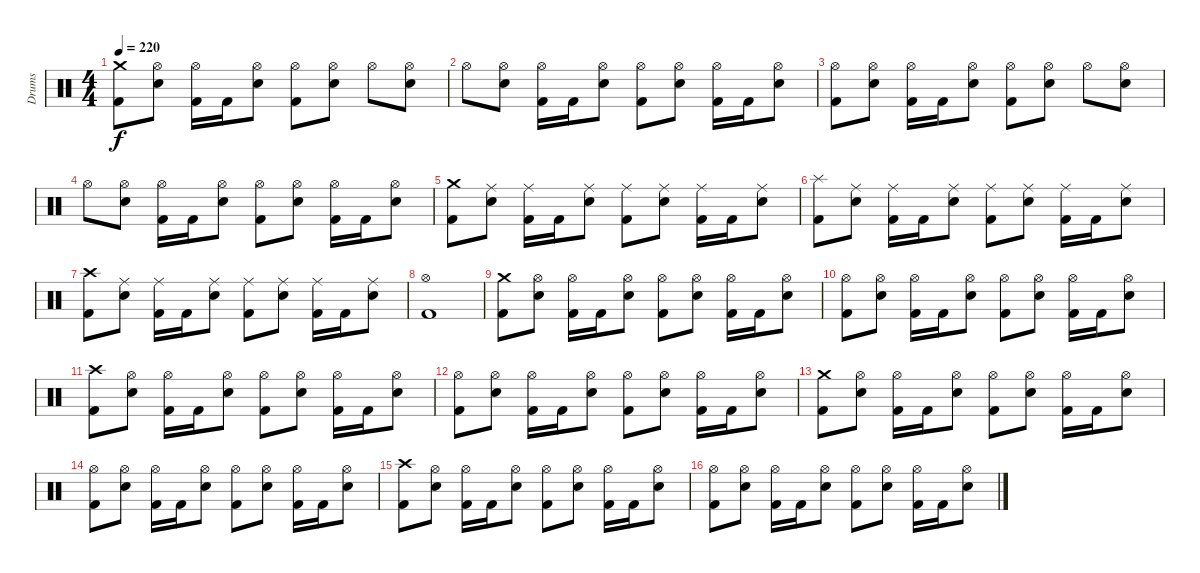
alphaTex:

\track ("Drums" "Drums") {instrument percussion}
\staff {score}
\articulation defaults
\ts (4 4)
\tempo 220
\clef neutral
\ks c
("Crash medium (hit)" "Kick (hit) 2").8{dy f} ("Hi-Hat (open)" "Electric Snare (hit)").8 ("Hi-Hat (open)" "Kick (hit) 2").16 "Kick (hit) 2".16 ("Hi-Hat (open)" "Electric Snare (hit)").8 ("Hi-Hat (open)" "Kick (hit) 2").8 ("Hi-Hat (open)" "Electric Snare (hit)").8 "Hi-Hat (open)".8 ("Hi-Hat (open)" "Electric Snare (hit)").8 |
"Hi-Hat (open)".8 ("Hi-Hat (open)" "Electric Snare (hit)").8 ("Hi-Hat (open)" "Kick (hit) 2").16 "Kick (hit) 2".16 ("Hi-Hat (open)" "Electric Snare (hit)").8 ("Hi-Hat (open)" "Kick (hit) 2").8 ("Hi-Hat (open)" "Electric Snare (hit)").8 ("Hi-Hat (open)" "Kick (hit) 2").16 "Kick (hit) 2".16 ("Hi-Hat (open)" "Electric Snare (hit)").8 |
("Hi-Hat (open)" "Kick (hit) 2").8 ("Hi-Hat (open)" "Electric Snare (hit)").8 ("Hi-Hat (open)" "Kick (hit) 2").16 "Kick (hit) 2".16 ("Hi-Hat (open)" "Electric Snare (hit)").8 ("Hi-Hat (open)" "Kick (hit) 2").8 ("Hi-Hat (open)" "Electric Snare (hit)").8 "Hi-Hat (open)".8 ("Hi-Hat (open)" "Electric Snare (hit)").8 |
"Hi-Hat (open)".8 ("Hi-Hat (open)" "Electric Snare (hit)").8 ("Hi-Hat (open)" "Kick (hit) 2").16 "Kick (hit) 2".16 ("Hi-Hat (open)" "Electric Snare (hit)").8 ("Hi-Hat (open)" "Kick (hit) 2").8 ("Hi-Hat (open)" "Electric Snare (hit)").8 ("Hi-Hat (open)" "Kick (hit) 2").16 "Kick (hit) 2".16 ("Hi-Hat (open)" "Electric Snare (hit)").8 |
("Crash medium (hit)" "Kick (hit) 2").8 ("Ride (middle)" "Electric Snare (hit)").8 ("Ride (middle)" "Kick (hit) 2").16 "Kick (hit) 2".16 ("Ride (middle)" "Electric Snare (hit)").8 ("Ride (middle)" "Kick (hit) 2").8 ("Ride (middle)" "Electric Snare (hit)").8 ("Ride (middle)" "Kick (hit) 2").16 "Kick (hit) 2".16 ("Ride (middle)" "Electric Snare (hit)").8 |
("Splash (hit)" "Kick (hit) 2").8 ("Ride (middle)" "Electric Snare (hit)").8 ("Ride (middle)" "Kick (hit) 2").16 "Kick (hit) 2".16 ("Ride (middle)" "Electric Snare (hit)").8 ("Ride (middle)" "Kick (hit) 2").8 ("Ride (middle)" "Electric Snare (hit)").8 ("Ride (middle)" "Kick (hit) 2").16 "Kick (hit) 2".16 ("Ride (middle)" "Electric Snare (hit)").8 |
("Crash high (hit)" "Kick (hit) 2").8 ("Ride (middle)" "Electric Snare (hit)").8 ("Ride (middle)" "Kick (hit) 2").16 "Kick (hit) 2".16 ("Ride (middle)" "Electric Snare (hit)").8 ("Ride (middle)" "Kick (hit) 2").8 ("Ride (middle)" "Electric Snare (hit)").8 ("Ride (middle)" "Kick (hit) 2").16 "Kick (hit) 2".16 ("Ride (middle)" "Electric Snare (hit)").8 |
("Hi-Hat (open)" "Kick (hit) 2").1 |
("Crash medium (hit)" "Kick (hit) 2").8 ("Hi-Hat (open)" "Electric Snare (hit)").8 ("Hi-Hat (open)" "Kick (hit) 2").16 "Kick (hit) 2".16 ("Hi-Hat (open)" "Electric Snare (hit)").8 ("Hi-Hat (open)" "Kick (hit) 2").8 ("Hi-Hat (open)" "Electric Snare (hit)").8 ("Hi-Hat (open)" "Kick (hit) 2").16 "Kick (hit) 2".16 ("Hi-Hat (open)" "Electric Snare (hit)").8 |
("Hi-Hat (open)" "Kick (hit) 2").8 ("Hi-Hat (open)" "Electric Snare (hit)").8 ("Hi-Hat (open)" "Kick (hit) 2").16 "Kick (hit) 2".16 ("Hi-Hat (open)" "Electric Snare (hit)").8 ("Hi-Hat (open)" "Kick (hit) 2").8 ("Hi-Hat (open)" "Electric Snare (hit)").8 ("Hi-Hat (open)" "Kick (hit) 2").16 "Kick (hit) 2".16 ("Hi-Hat (open)" "Electric Snare (hit)").8 |
("Crash high (hit)" "Kick (hit) 2").8 ("Hi-Hat (open)" "Electric Snare (hit)").8 ("Hi-Hat (open)" "Kick (hit) 2").16 "Kick (hit) 2".16 ("Hi-Hat (open)" "Electric Snare (hit)").8 ("Hi-Hat (open)" "Kick (hit) 2").8 ("Hi-Hat (open)" "Electric Snare (hit)").8 ("Hi-Hat (open)" "Kick (hit) 2").16 "Kick (hit) 2".16 ("Hi-Hat (open)" "Electric Snare (hit)").8 |
("Hi-Hat (open)" "Kick (hit) 2").8 ("Hi-Hat (open)" "Electric Snare (hit)").8 ("Hi-Hat (open)" "Kick (hit) 2").16 "Kick (hit) 2".16 ("Hi-Hat (open)" "Electric Snare (hit)").8 ("Hi-Hat (open)" "Kick (hit) 2").8 ("Hi-Hat (open)" "Electric Snare (hit)").8 ("Hi-Hat (open)" "Kick (hit) 2").16 "Kick (hit) 2".16 ("Hi-Hat (open)" "Electric Snare (hit)").8 |
("Crash medium (hit)" "Kick (hit) 2").8 ("Hi-Hat (open)" "Electric Snare (hit)").8 ("Hi-Hat (open)" "Kick (hit) 2").16 "Kick (hit) 2".16 ("Hi-Hat (open)" "Electric Snare (hit)").8 ("Hi-Hat (open)" "Kick (hit) 2").8 ("Hi-Hat (open)" "Electric Snare (hit)").8 ("Hi-Hat (open)" "Kick (hit) 2").16 "Kick (hit) 2".16 ("Hi-Hat (open)" "Electric Snare (hit)").8 |
("Hi-Hat (open)" "Kick (hit) 2").8 ("Hi-Hat (open)" "Electric Snare (hit)").8 ("Hi-Hat (open)" "Kick (hit) 2").16 "Kick (hit) 2".16 ("Hi-Hat (open)" "Electric Snare (hit)").8 ("Hi-Hat (open)" "Kick (hit) 2").8 ("Hi-Hat (open)" "Electric Snare (hit)").8 ("Hi-Hat (open)" "Kick (hit) 2").16 "Kick (hit) 2".16 ("Hi-Hat (open)" "Electric Snare (hit)").8 |
("Crash high (hit)" "Kick (hit) 2").8 ("Hi-Hat (open)" "Electric Snare (hit)").8 ("Hi-Hat (open)" "Kick (hit) 2").16 "Kick (hit) 2".16 ("Hi-Hat (open)" "Electric Snare (hit)").8 ("Hi-Hat (open)" "Kick (hit) 2").8 ("Hi-Hat (open)" "Electric Snare (hit)").8 ("Hi-Hat (open)" "Kick (hit) 2").16 "Kick (hit) 2".16 ("Hi-Hat (open)" "Electric Snare (hit)").8 |
("Hi-Hat (open)" "Kick (hit) 2").8 ("Hi-Hat (open)" "Electric Snare (hit)").8 ("Hi-Hat (open)" "Kick (hit) 2").16 "Kick (hit) 2".16 ("Hi-Hat (open)" "Electric Snare (hit)").8 ("Hi-Hat (open)" "Kick (hit) 2").8 ("Hi-Hat (open)" "Electric Snare (hit)").8 ("Hi-Hat (open)" "Kick (hit) 2").16 "Kick (hit) 2".16 ("Hi-Hat (open)" "Electric Snare (hit)").8
